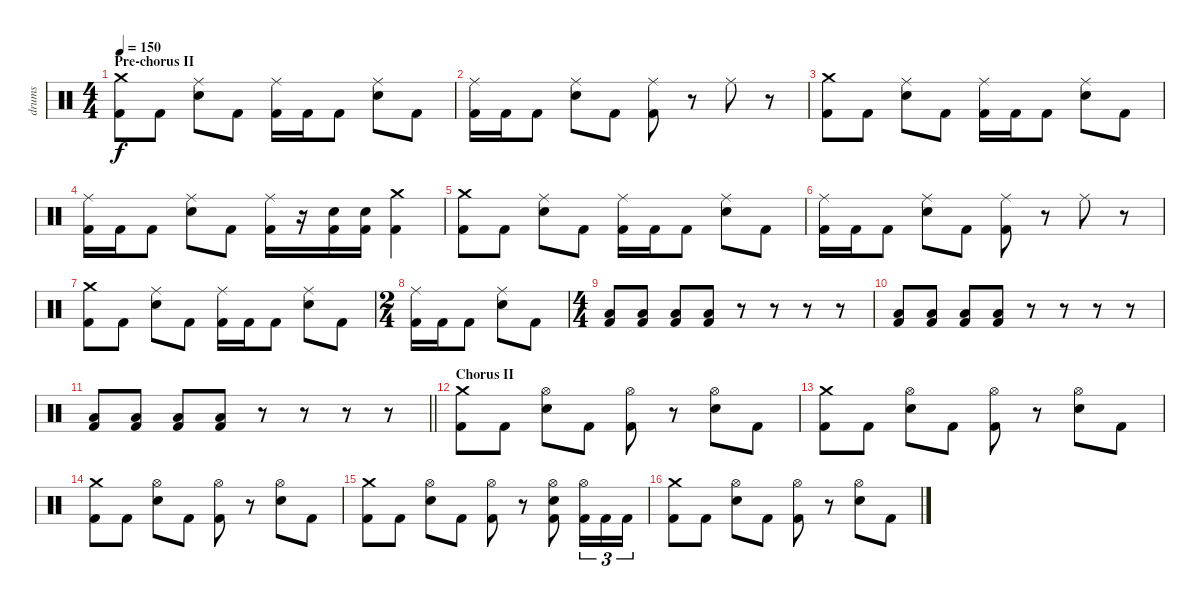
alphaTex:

\track ("drums" "drums") {instrument percussion}
\staff {score}
\articulation defaults
\ts (4 4)
\section ("" "Pre-chorus II")
\tempo 150
\clef neutral
\ks c
("Crash medium (hit)" "Kick (hit) 2").8{dy f} "Kick (hit) 2".8 ("Ride (middle)" "Electric Snare (hit)").8 "Kick (hit) 2".8 ("Ride (middle)" "Kick (hit) 2").16 "Kick (hit) 2".16 "Kick (hit) 2".8 ("Ride (middle)" "Electric Snare (hit)").8 "Kick (hit) 2".8 |
("Ride (middle)" "Kick (hit) 2").16 "Kick (hit) 2".16 "Kick (hit) 2".8 ("Ride (middle)" "Electric Snare (hit)").8 "Kick (hit) 2".8 ("Ride (middle)" "Kick (hit) 2").8 r.8 "Ride (middle)".8 r.8 |
("Crash medium (hit)" "Kick (hit) 2").8 "Kick (hit) 2".8 ("Ride (middle)" "Electric Snare (hit)").8 "Kick (hit) 2".8 ("Ride (middle)" "Kick (hit) 2").16 "Kick (hit) 2".16 "Kick (hit) 2".8 ("Ride (middle)" "Electric Snare (hit)").8 "Kick (hit) 2".8 |
("Ride (middle)" "Kick (hit) 2").16 "Kick (hit) 2".16 "Kick (hit) 2".8 ("Ride (middle)" "Electric Snare (hit)").8 "Kick (hit) 2".8 ("Ride (middle)" "Kick (hit) 2").16 r.16 ("Electric Snare (hit)" "Kick (hit) 2").16 ("Electric Snare (hit)" "Kick (hit) 2").16 ("Crash medium (hit)" "Kick (hit) 2").4 |
("Crash medium (hit)" "Kick (hit) 2").8 "Kick (hit) 2".8 ("Ride (middle)" "Electric Snare (hit)").8 "Kick (hit) 2".8 ("Ride (middle)" "Kick (hit) 2").16 "Kick (hit) 2".16 "Kick (hit) 2".8 ("Ride (middle)" "Electric Snare (hit)").8 "Kick (hit) 2".8 |
("Ride (middle)" "Kick (hit) 2").16 "Kick (hit) 2".16 "Kick (hit) 2".8 ("Ride (middle)" "Electric Snare (hit)").8 "Kick (hit) 2".8 ("Ride (middle)" "Kick (hit) 2").8 r.8 "Ride (middle)".8 r.8 |
("Crash medium (hit)" "Kick (hit) 2").8 "Kick (hit) 2".8 ("Ride (middle)" "Electric Snare (hit)").8 "Kick (hit) 2".8 ("Ride (middle)" "Kick (hit) 2").16 "Kick (hit) 2".16 "Kick (hit) 2".8 ("Ride (middle)" "Electric Snare (hit)").8 "Kick (hit) 2".8 |
\ts (2 4)
("Ride (middle)" "Kick (hit) 2").16 "Kick (hit) 2".16 "Kick (hit) 2".8 ("Ride (middle)" "Electric Snare (hit)").8 "Kick (hit) 2".8 |
\ts (4 4)
("Low Tom (hit)" "Kick (hit) 2").8 ("Low Tom (hit)" "Kick (hit) 2").8 ("Low Tom (hit)" "Kick (hit) 2").8 ("Low Tom (hit)" "Kick (hit) 2").8 r.8 r.8 r.8 r.8 |
("Low Tom (hit)" "Kick (hit) 2").8 ("Low Tom (hit)" "Kick (hit) 2").8 ("Low Tom (hit)" "Kick (hit) 2").8 ("Low Tom (hit)" "Kick (hit) 2").8 r.8 r.8 r.8 r.8 |
\barLineRight lightlight
("Low Tom (hit)" "Kick (hit) 2").8 ("Low Tom (hit)" "Kick (hit) 2").8 ("Low Tom (hit)" "Kick (hit) 2").8 ("Low Tom (hit)" "Kick (hit) 2").8 r.8 r.8 r.8 r.8 |
\section ("" "Chorus II")
("Crash medium (hit)" "Kick (hit) 2").8 "Kick (hit) 2".8 ("Hi-Hat (open)" "Electric Snare (hit)").8 "Kick (hit) 2".8 ("Hi-Hat (open)" "Kick (hit) 2").8 r.8 ("Hi-Hat (open)" "Electric Snare (hit)").8 "Kick (hit) 2".8 |
("Crash medium (hit)" "Kick (hit) 2").8 "Kick (hit) 2".8 ("Hi-Hat (open)" "Electric Snare (hit)").8 "Kick (hit) 2".8 ("Hi-Hat (open)" "Kick (hit) 2").8 r.8 ("Hi-Hat (open)" "Electric Snare (hit)").8 "Kick (hit) 2".8 |
("Crash medium (hit)" "Kick (hit) 2").8 "Kick (hit) 2".8 ("Hi-Hat (open)" "Electric Snare (hit)").8 "Kick (hit) 2".8 ("Hi-Hat (open)" "Kick (hit) 2").8 r.8 ("Hi-Hat (open)" "Electric Snare (hit)").8 "Kick (hit) 2".8 |
("Crash medium (hit)" "Kick (hit) 2").8 "Kick (hit) 2".8 ("Hi-Hat (open)" "Electric Snare (hit)").8 "Kick (hit) 2".8 ("Hi-Hat (open)" "Kick (hit) 2").8 r.8 ("Hi-Hat (open)" "Electric Snare (hit)" "Kick (hit) 2").8 ("Hi-Hat (open)" "Kick (hit) 2").16{tu (3 2)} "Kick (hit) 2".16{tu (3 2)} "Kick (hit) 2".16{tu (3 2)} |
("Crash medium (hit)" "Kick (hit) 2").8 "Kick (hit) 2".8 ("Hi-Hat (open)" "Electric Snare (hit)").8 "Kick (hit) 2".8 ("Hi-Hat (open)" "Kick (hit) 2").8 r.8 ("Hi-Hat (open)" "Electric Snare (hit)").8 "Kick (hit) 2".8
